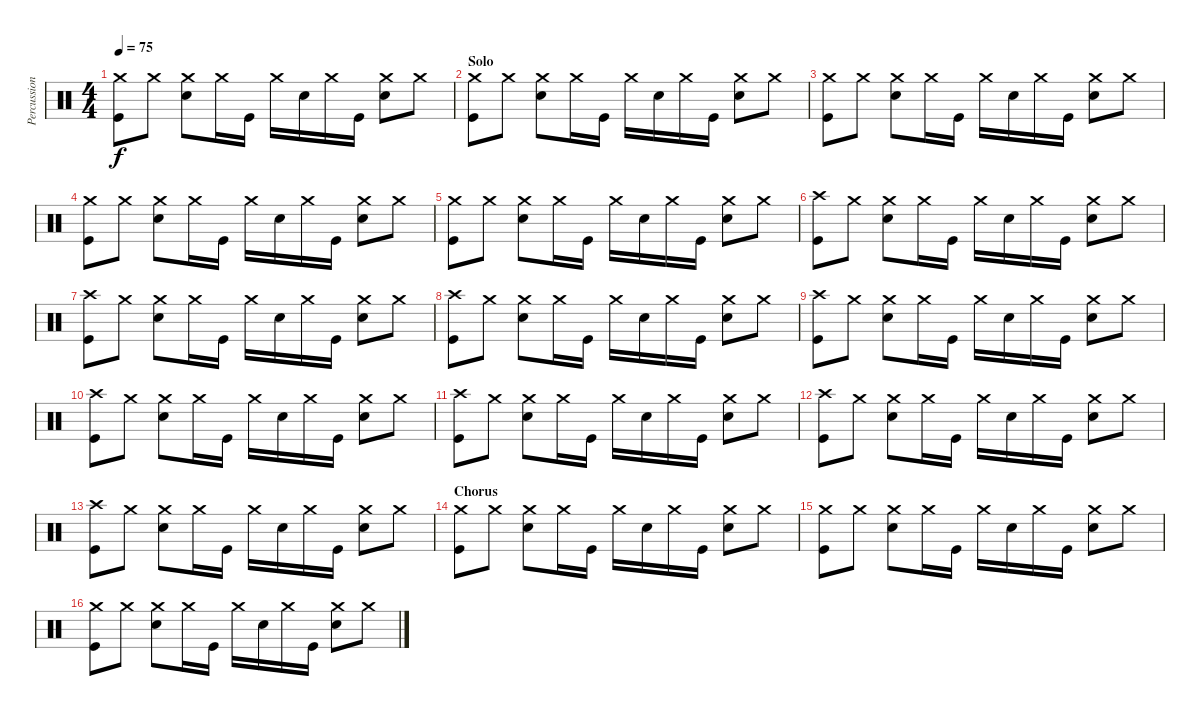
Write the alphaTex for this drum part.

\track ("Percussion" "Percussion") {instrument percussion}
\staff {score}
\articulation defaults
\ts (4 4)
\tempo 75
\clef neutral
\ks c
("Crash medium (hit)" "Kick (hit)").8{dy f} "Crash medium (hit)".8 ("Crash medium (hit)" "Snare (hit) 2").8 "Crash medium (hit)".16 "Kick (hit)".16 "Crash medium (hit)".16 "Snare (hit) 2".16 "Crash medium (hit)".16 "Kick (hit)".16 ("Crash medium (hit)" "Snare (hit) 2").8 "Crash medium (hit)".8 |
\section ("" "Solo")
("Crash medium (hit)" "Kick (hit)").8 "Crash medium (hit)".8 ("Crash medium (hit)" "Snare (hit) 2").8 "Crash medium (hit)".16 "Kick (hit)".16 "Crash medium (hit)".16 "Snare (hit) 2".16 "Crash medium (hit)".16 "Kick (hit)".16 ("Crash medium (hit)" "Snare (hit) 2").8 "Crash medium (hit)".8 |
("Crash medium (hit)" "Kick (hit)").8 "Crash medium (hit)".8 ("Crash medium (hit)" "Snare (hit) 2").8 "Crash medium (hit)".16 "Kick (hit)".16 "Crash medium (hit)".16 "Snare (hit) 2".16 "Crash medium (hit)".16 "Kick (hit)".16 ("Crash medium (hit)" "Snare (hit) 2").8 "Crash medium (hit)".8 |
("Crash medium (hit)" "Kick (hit)").8 "Crash medium (hit)".8 ("Crash medium (hit)" "Snare (hit) 2").8 "Crash medium (hit)".16 "Kick (hit)".16 "Crash medium (hit)".16 "Snare (hit) 2".16 "Crash medium (hit)".16 "Kick (hit)".16 ("Crash medium (hit)" "Snare (hit) 2").8 "Crash medium (hit)".8 |
("Crash medium (hit)" "Kick (hit)").8 "Crash medium (hit)".8 ("Crash medium (hit)" "Snare (hit) 2").8 "Crash medium (hit)".16 "Kick (hit)".16 "Crash medium (hit)".16 "Snare (hit) 2".16 "Crash medium (hit)".16 "Kick (hit)".16 ("Crash medium (hit)" "Snare (hit) 2").8 "Crash medium (hit)".8 |
("Crash high (hit)" "Kick (hit)").8 "Crash medium (hit)".8 ("Crash medium (hit)" "Snare (hit) 2").8 "Crash medium (hit)".16 "Kick (hit)".16 "Crash medium (hit)".16 "Snare (hit) 2".16 "Crash medium (hit)".16 "Kick (hit)".16 ("Crash medium (hit)" "Snare (hit) 2").8 "Crash medium (hit)".8 |
("Crash high (hit)" "Kick (hit)").8 "Crash medium (hit)".8 ("Crash medium (hit)" "Snare (hit) 2").8 "Crash medium (hit)".16 "Kick (hit)".16 "Crash medium (hit)".16 "Snare (hit) 2".16 "Crash medium (hit)".16 "Kick (hit)".16 ("Crash medium (hit)" "Snare (hit) 2").8 "Crash medium (hit)".8 |
("Crash high (hit)" "Kick (hit)").8 "Crash medium (hit)".8 ("Crash medium (hit)" "Snare (hit) 2").8 "Crash medium (hit)".16 "Kick (hit)".16 "Crash medium (hit)".16 "Snare (hit) 2".16 "Crash medium (hit)".16 "Kick (hit)".16 ("Crash medium (hit)" "Snare (hit) 2").8 "Crash medium (hit)".8 |
("Crash high (hit)" "Kick (hit)").8 "Crash medium (hit)".8 ("Crash medium (hit)" "Snare (hit) 2").8 "Crash medium (hit)".16 "Kick (hit)".16 "Crash medium (hit)".16 "Snare (hit) 2".16 "Crash medium (hit)".16 "Kick (hit)".16 ("Crash medium (hit)" "Snare (hit) 2").8 "Crash medium (hit)".8 |
("Crash high (hit)" "Kick (hit)").8 "Crash medium (hit)".8 ("Crash medium (hit)" "Snare (hit) 2").8 "Crash medium (hit)".16 "Kick (hit)".16 "Crash medium (hit)".16 "Snare (hit) 2".16 "Crash medium (hit)".16 "Kick (hit)".16 ("Crash medium (hit)" "Snare (hit) 2").8 "Crash medium (hit)".8 |
("Crash high (hit)" "Kick (hit)").8 "Crash medium (hit)".8 ("Crash medium (hit)" "Snare (hit) 2").8 "Crash medium (hit)".16 "Kick (hit)".16 "Crash medium (hit)".16 "Snare (hit) 2".16 "Crash medium (hit)".16 "Kick (hit)".16 ("Crash medium (hit)" "Snare (hit) 2").8 "Crash medium (hit)".8 |
("Crash high (hit)" "Kick (hit)").8 "Crash medium (hit)".8 ("Crash medium (hit)" "Snare (hit) 2").8 "Crash medium (hit)".16 "Kick (hit)".16 "Crash medium (hit)".16 "Snare (hit) 2".16 "Crash medium (hit)".16 "Kick (hit)".16 ("Crash medium (hit)" "Snare (hit) 2").8 "Crash medium (hit)".8 |
("Crash high (hit)" "Kick (hit)").8 "Crash medium (hit)".8 ("Crash medium (hit)" "Snare (hit) 2").8 "Crash medium (hit)".16 "Kick (hit)".16 "Crash medium (hit)".16 "Snare (hit) 2".16 "Crash medium (hit)".16 "Kick (hit)".16 ("Crash medium (hit)" "Snare (hit) 2").8 "Crash medium (hit)".8 |
\section ("" "Chorus")
("Crash medium (hit)" "Kick (hit)").8 "Crash medium (hit)".8 ("Crash medium (hit)" "Snare (hit) 2").8 "Crash medium (hit)".16 "Kick (hit)".16 "Crash medium (hit)".16 "Snare (hit) 2".16 "Crash medium (hit)".16 "Kick (hit)".16 ("Crash medium (hit)" "Snare (hit) 2").8 "Crash medium (hit)".8 |
("Crash medium (hit)" "Kick (hit)").8 "Crash medium (hit)".8 ("Crash medium (hit)" "Snare (hit) 2").8 "Crash medium (hit)".16 "Kick (hit)".16 "Crash medium (hit)".16 "Snare (hit) 2".16 "Crash medium (hit)".16 "Kick (hit)".16 ("Crash medium (hit)" "Snare (hit) 2").8 "Crash medium (hit)".8 |
("Crash medium (hit)" "Kick (hit)").8 "Crash medium (hit)".8 ("Crash medium (hit)" "Snare (hit) 2").8 "Crash medium (hit)".16 "Kick (hit)".16 "Crash medium (hit)".16 "Snare (hit) 2".16 "Crash medium (hit)".16 "Kick (hit)".16 ("Crash medium (hit)" "Snare (hit) 2").8 "Crash medium (hit)".8
